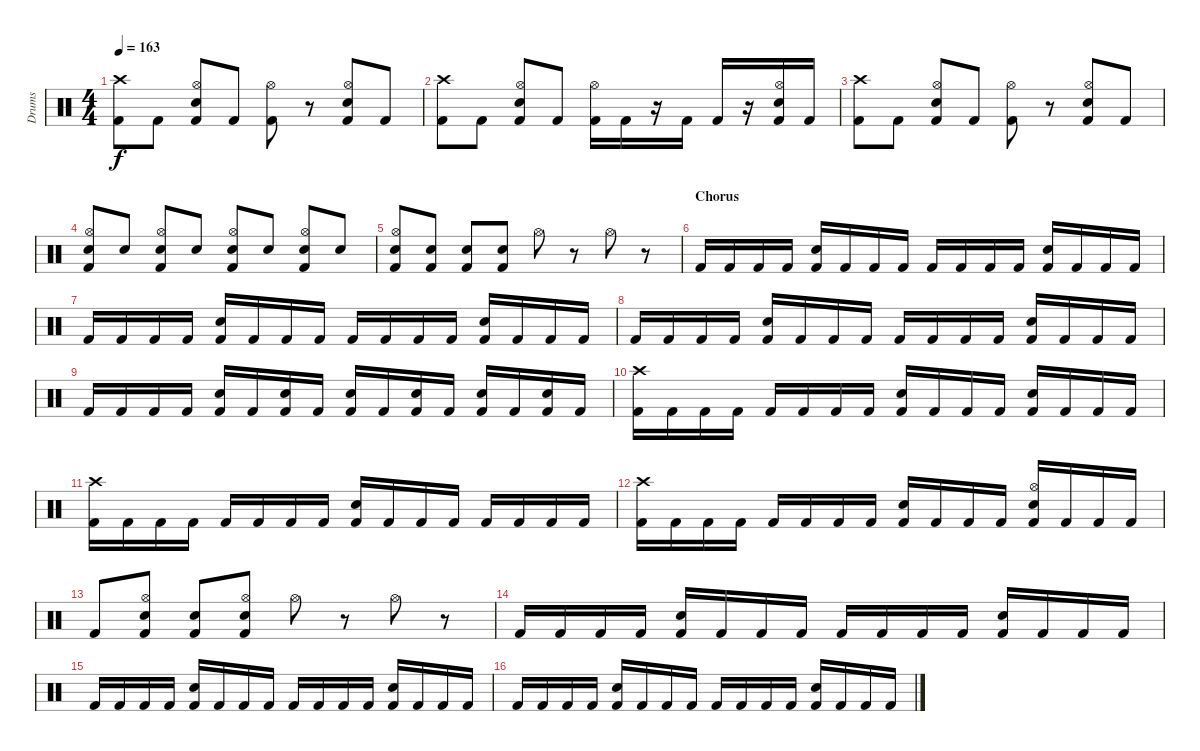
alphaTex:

\track ("Drums" "Drums") {instrument percussion}
\staff {score}
\articulation defaults
\ts (4 4)
\tempo 163
\clef neutral
\ks c
("Crash high (hit)" "Kick (hit) 2").8{dy f} "Kick (hit) 2".8 ("Hi-Hat (open)" "Kick (hit) 2" "Snare (hit) 2").8 "Kick (hit) 2".8 ("Hi-Hat (open)" "Kick (hit) 2").8 r.8 ("Hi-Hat (open)" "Kick (hit) 2" "Snare (hit) 2").8 "Kick (hit) 2".8 |
("Crash high (hit)" "Kick (hit) 2").8 "Kick (hit) 2".8 ("Hi-Hat (open)" "Kick (hit) 2" "Snare (hit) 2").8 "Kick (hit) 2".8 ("Hi-Hat (open)" "Kick (hit) 2").16 "Kick (hit) 2".16 r.16 "Kick (hit) 2".16 "Kick (hit) 2".16 r.16 ("Hi-Hat (open)" "Kick (hit) 2" "Snare (hit) 2").16 "Kick (hit) 2".16 |
("Crash high (hit)" "Kick (hit) 2").8 "Kick (hit) 2".8 ("Hi-Hat (open)" "Kick (hit) 2" "Snare (hit) 2").8 "Kick (hit) 2".8 ("Hi-Hat (open)" "Kick (hit) 2").8 r.8 ("Hi-Hat (open)" "Kick (hit) 2" "Snare (hit) 2").8 "Kick (hit) 2".8 |
("Hi-Hat (open)" "Kick (hit) 2" "Snare (hit) 2").8 "Snare (hit)".8 ("Hi-Hat (open)" "Kick (hit) 2" "Snare (hit) 2").8 "Snare (hit)".8 ("Hi-Hat (open)" "Kick (hit) 2" "Snare (hit) 2").8 "Snare (hit)".8 ("Hi-Hat (open)" "Kick (hit) 2" "Snare (hit) 2").8 "Snare (hit)".8 |
("Hi-Hat (open)" "Snare (hit) 2" "Kick (hit) 2").8 ("Snare (hit) 2" "Kick (hit) 2").8 ("Snare (hit) 2" "Kick (hit) 2").8 ("Snare (hit) 2" "Kick (hit) 2").8 "Hi-Hat (open)".8 r.8 "Hi-Hat (open)".8 r.8 |
\section ("" "Chorus")
"Kick (hit) 2".16 "Kick (hit) 2".16 "Kick (hit) 2".16 "Kick (hit) 2".16 ("Snare (hit) 2" "Kick (hit) 2").16 "Kick (hit) 2".16 "Kick (hit) 2".16 "Kick (hit) 2".16 "Kick (hit) 2".16 "Kick (hit) 2".16 "Kick (hit) 2".16 "Kick (hit) 2".16 ("Snare (hit) 2" "Kick (hit) 2").16 "Kick (hit) 2".16 "Kick (hit) 2".16 "Kick (hit) 2".16 |
"Kick (hit) 2".16 "Kick (hit) 2".16 "Kick (hit) 2".16 "Kick (hit) 2".16 ("Snare (hit) 2" "Kick (hit) 2").16 "Kick (hit) 2".16 "Kick (hit) 2".16 "Kick (hit) 2".16 "Kick (hit) 2".16 "Kick (hit) 2".16 "Kick (hit) 2".16 "Kick (hit) 2".16 ("Snare (hit) 2" "Kick (hit) 2").16 "Kick (hit) 2".16 "Kick (hit) 2".16 "Kick (hit) 2".16 |
"Kick (hit) 2".16 "Kick (hit) 2".16 "Kick (hit) 2".16 "Kick (hit) 2".16 ("Snare (hit) 2" "Kick (hit) 2").16 "Kick (hit) 2".16 "Kick (hit) 2".16 "Kick (hit) 2".16 "Kick (hit) 2".16 "Kick (hit) 2".16 "Kick (hit) 2".16 "Kick (hit) 2".16 ("Snare (hit) 2" "Kick (hit) 2").16 "Kick (hit) 2".16 "Kick (hit) 2".16 "Kick (hit) 2".16 |
"Kick (hit) 2".16 "Kick (hit) 2".16 "Kick (hit) 2".16 "Kick (hit) 2".16 ("Snare (hit) 2" "Kick (hit) 2").16 "Kick (hit) 2".16 ("Snare (hit) 2" "Kick (hit) 2").16 "Kick (hit) 2".16 ("Snare (hit) 2" "Kick (hit) 2").16 "Kick (hit) 2".16 ("Snare (hit) 2" "Kick (hit) 2").16 "Kick (hit) 2".16 ("Snare (hit) 2" "Kick (hit) 2").16 "Kick (hit) 2".16 ("Snare (hit) 2" "Kick (hit) 2").16 "Kick (hit) 2".16 |
("Crash high (hit)" "Kick (hit) 2").16 "Kick (hit) 2".16 "Kick (hit) 2".16 "Kick (hit) 2".16 "Kick (hit) 2".16 "Kick (hit) 2".16 "Kick (hit) 2".16 "Kick (hit) 2".16 ("Snare (hit) 2" "Kick (hit) 2").16 "Kick (hit) 2".16 "Kick (hit) 2".16 "Kick (hit) 2".16 ("Snare (hit) 2" "Kick (hit) 2").16 "Kick (hit) 2".16 "Kick (hit) 2".16 "Kick (hit) 2".16 |
("Crash high (hit)" "Kick (hit) 2").16 "Kick (hit) 2".16 "Kick (hit) 2".16 "Kick (hit) 2".16 "Kick (hit) 2".16 "Kick (hit) 2".16 "Kick (hit) 2".16 "Kick (hit) 2".16 ("Snare (hit) 2" "Kick (hit) 2").16 "Kick (hit) 2".16 "Kick (hit) 2".16 "Kick (hit) 2".16 "Kick (hit) 2".16 "Kick (hit) 2".16 "Kick (hit) 2".16 "Kick (hit) 2".16 |
("Crash high (hit)" "Kick (hit) 2").16 "Kick (hit) 2".16 "Kick (hit) 2".16 "Kick (hit) 2".16 "Kick (hit) 2".16 "Kick (hit) 2".16 "Kick (hit) 2".16 "Kick (hit) 2".16 ("Snare (hit) 2" "Kick (hit) 2").16 "Kick (hit) 2".16 "Kick (hit) 2".16 "Kick (hit) 2".16 ("Hi-Hat (open)" "Snare (hit) 2" "Kick (hit) 2").16 "Kick (hit) 2".16 "Kick (hit) 2".16 "Kick (hit) 2".16 |
"Kick (hit) 2".8 ("Hi-Hat (open)" "Snare (hit) 2" "Kick (hit) 2").8 ("Snare (hit) 2" "Kick (hit) 2").8 ("Hi-Hat (open)" "Snare (hit) 2" "Kick (hit) 2").8 "Hi-Hat (open)".8 r.8 "Hi-Hat (open)".8 r.8 |
"Kick (hit) 2".16 "Kick (hit) 2".16 "Kick (hit) 2".16 "Kick (hit) 2".16 ("Snare (hit) 2" "Kick (hit) 2").16 "Kick (hit) 2".16 "Kick (hit) 2".16 "Kick (hit) 2".16 "Kick (hit) 2".16 "Kick (hit) 2".16 "Kick (hit) 2".16 "Kick (hit) 2".16 ("Snare (hit) 2" "Kick (hit) 2").16 "Kick (hit) 2".16 "Kick (hit) 2".16 "Kick (hit) 2".16 |
"Kick (hit) 2".16 "Kick (hit) 2".16 "Kick (hit) 2".16 "Kick (hit) 2".16 ("Snare (hit) 2" "Kick (hit) 2").16 "Kick (hit) 2".16 "Kick (hit) 2".16 "Kick (hit) 2".16 "Kick (hit) 2".16 "Kick (hit) 2".16 "Kick (hit) 2".16 "Kick (hit) 2".16 ("Snare (hit) 2" "Kick (hit) 2").16 "Kick (hit) 2".16 "Kick (hit) 2".16 "Kick (hit) 2".16 |
"Kick (hit) 2".16 "Kick (hit) 2".16 "Kick (hit) 2".16 "Kick (hit) 2".16 ("Snare (hit) 2" "Kick (hit) 2").16 "Kick (hit) 2".16 "Kick (hit) 2".16 "Kick (hit) 2".16 "Kick (hit) 2".16 "Kick (hit) 2".16 "Kick (hit) 2".16 "Kick (hit) 2".16 ("Snare (hit) 2" "Kick (hit) 2").16 "Kick (hit) 2".16 "Kick (hit) 2".16 "Kick (hit) 2".16
